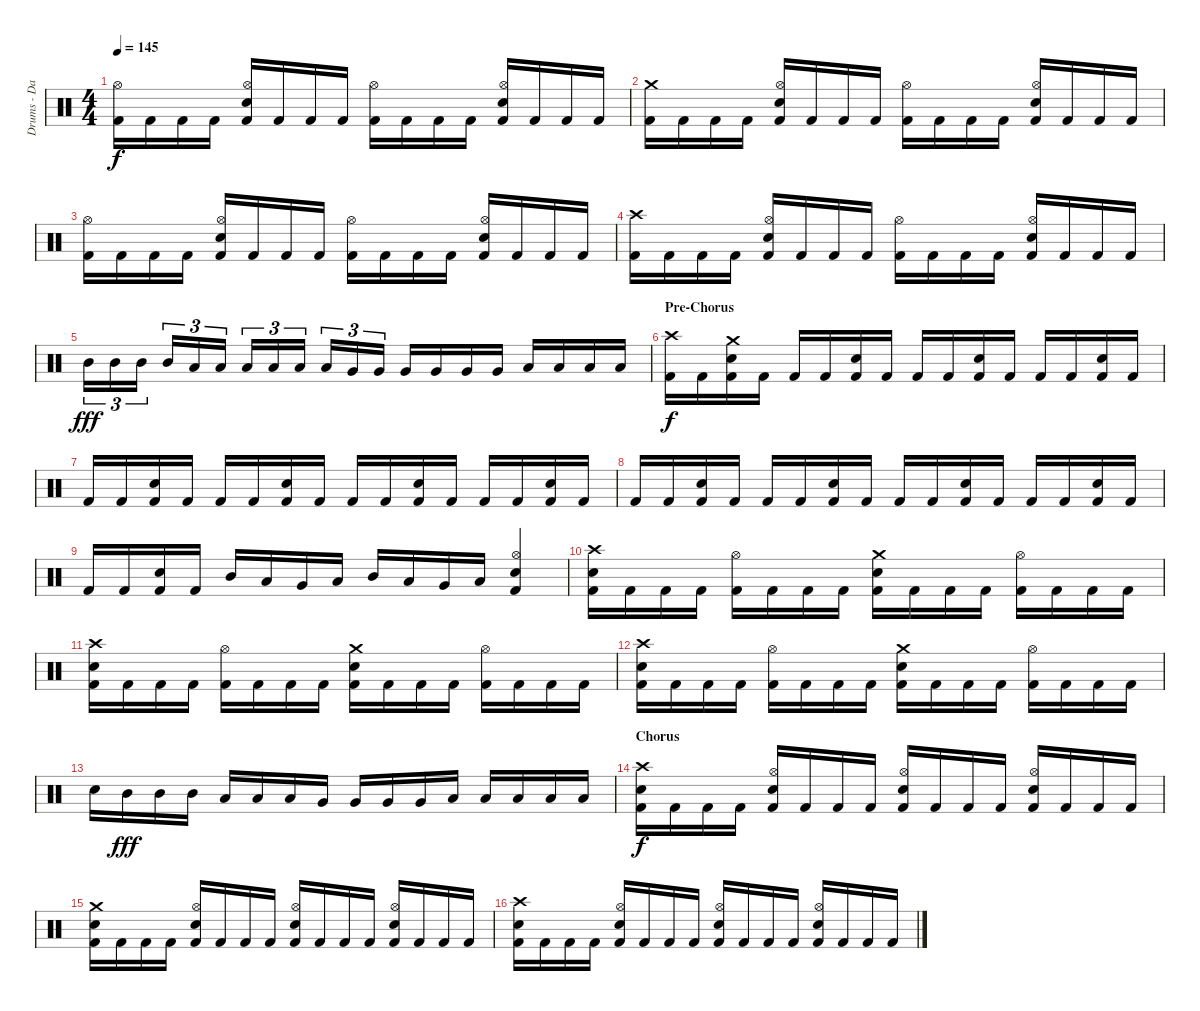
\track ("Drums - Daniel Zimmermann" "Drums - Da") {instrument percussion}
\staff {score}
\articulation defaults
\ts (4 4)
\tempo 145
\clef neutral
\ks c
("Kick (hit) 2" "Hi-Hat (open)").16{dy f} "Kick (hit) 2".16 "Kick (hit) 2".16 "Kick (hit) 2".16 ("Kick (hit) 2" "Electric Snare (hit)" "Hi-Hat (open)").16 "Kick (hit) 2".16 "Kick (hit) 2".16 "Kick (hit) 2".16 ("Kick (hit) 2" "Hi-Hat (open)").16 "Kick (hit) 2".16 "Kick (hit) 2".16 "Kick (hit) 2".16 ("Kick (hit) 2" "Electric Snare (hit)" "Hi-Hat (open)").16 "Kick (hit) 2".16 "Kick (hit) 2".16 "Kick (hit) 2".16 |
("Kick (hit) 2" "Crash medium (hit)").16 "Kick (hit) 2".16 "Kick (hit) 2".16 "Kick (hit) 2".16 ("Kick (hit) 2" "Electric Snare (hit)" "Hi-Hat (open)").16 "Kick (hit) 2".16 "Kick (hit) 2".16 "Kick (hit) 2".16 ("Kick (hit) 2" "Hi-Hat (open)").16 "Kick (hit) 2".16 "Kick (hit) 2".16 "Kick (hit) 2".16 ("Kick (hit) 2" "Electric Snare (hit)" "Hi-Hat (open)").16 "Kick (hit) 2".16 "Kick (hit) 2".16 "Kick (hit) 2".16 |
("Kick (hit) 2" "Hi-Hat (open)").16 "Kick (hit) 2".16 "Kick (hit) 2".16 "Kick (hit) 2".16 ("Kick (hit) 2" "Electric Snare (hit)" "Hi-Hat (open)").16 "Kick (hit) 2".16 "Kick (hit) 2".16 "Kick (hit) 2".16 ("Kick (hit) 2" "Hi-Hat (open)").16 "Kick (hit) 2".16 "Kick (hit) 2".16 "Kick (hit) 2".16 ("Kick (hit) 2" "Electric Snare (hit)" "Hi-Hat (open)").16 "Kick (hit) 2".16 "Kick (hit) 2".16 "Kick (hit) 2".16 |
("Kick (hit) 2" "Crash high (hit)").16 "Kick (hit) 2".16 "Kick (hit) 2".16 "Kick (hit) 2".16 ("Kick (hit) 2" "Electric Snare (hit)" "Hi-Hat (open)").16 "Kick (hit) 2".16 "Kick (hit) 2".16 "Kick (hit) 2".16 ("Kick (hit) 2" "Hi-Hat (open)").16 "Kick (hit) 2".16 "Kick (hit) 2".16 "Kick (hit) 2".16 ("Kick (hit) 2" "Electric Snare (hit)" "Hi-Hat (open)").16 "Kick (hit) 2".16 "Kick (hit) 2".16 "Kick (hit) 2".16 |
"Mid Tom (hit)".16{tu (3 2) dy fff} "Mid Tom (hit)".16{tu (3 2)} "Mid Tom (hit)".16{tu (3 2)} "Mid Tom (hit)".16{tu (3 2)} "Low Tom (hit)".16{tu (3 2)} "Low Tom (hit)".16{tu (3 2)} "Low Tom (hit)".16{tu (3 2)} "Low Tom (hit)".16{tu (3 2)} "Low Tom (hit)".16{tu (3 2)} "Low Tom (hit)".16{tu (3 2)} "Very Low Tom (hit)".16{tu (3 2)} "Very Low Tom (hit)".16{tu (3 2)} "Very Low Tom (hit)".16 "Very Low Tom (hit)".16 "Very Low Tom (hit)".16 "Very Low Tom (hit)".16 "Low Floor Tom (hit)".16 "Low Floor Tom (hit)".16 "Low Floor Tom (hit)".16 "Low Floor Tom (hit)".16 |
\section ("" "Pre-Chorus")
("Kick (hit) 2" "Crash high (hit)").16{dy f} "Kick (hit) 2".16 ("Kick (hit) 2" "Electric Snare (hit)" "Crash medium (hit)").16 "Kick (hit) 2".16 "Kick (hit) 2".16 "Kick (hit) 2".16 ("Kick (hit) 2" "Electric Snare (hit)").16 "Kick (hit) 2".16 "Kick (hit) 2".16 "Kick (hit) 2".16 ("Kick (hit) 2" "Electric Snare (hit)").16 "Kick (hit) 2".16 "Kick (hit) 2".16 "Kick (hit) 2".16 ("Kick (hit) 2" "Electric Snare (hit)").16 "Kick (hit) 2".16 |
"Kick (hit) 2".16 "Kick (hit) 2".16 ("Kick (hit) 2" "Electric Snare (hit)").16 "Kick (hit) 2".16 "Kick (hit) 2".16 "Kick (hit) 2".16 ("Kick (hit) 2" "Electric Snare (hit)").16 "Kick (hit) 2".16 "Kick (hit) 2".16 "Kick (hit) 2".16 ("Kick (hit) 2" "Electric Snare (hit)").16 "Kick (hit) 2".16 "Kick (hit) 2".16 "Kick (hit) 2".16 ("Kick (hit) 2" "Electric Snare (hit)").16 "Kick (hit) 2".16 |
"Kick (hit) 2".16 "Kick (hit) 2".16 ("Kick (hit) 2" "Electric Snare (hit)").16 "Kick (hit) 2".16 "Kick (hit) 2".16 "Kick (hit) 2".16 ("Kick (hit) 2" "Electric Snare (hit)").16 "Kick (hit) 2".16 "Kick (hit) 2".16 "Kick (hit) 2".16 ("Kick (hit) 2" "Electric Snare (hit)").16 "Kick (hit) 2".16 "Kick (hit) 2".16 "Kick (hit) 2".16 ("Kick (hit) 2" "Electric Snare (hit)").16 "Kick (hit) 2".16 |
"Kick (hit) 2".16 "Kick (hit) 2".16 ("Kick (hit) 2" "Electric Snare (hit)").16 "Kick (hit) 2".16 "Mid Tom (hit)".16 "Low Tom (hit)".16 "Very Low Tom (hit)".16 "Low Floor Tom (hit)".16 "Mid Tom (hit)".16 "Low Tom (hit)".16 "Very Low Tom (hit)".16 "Low Floor Tom (hit)".16 ("Kick (hit) 2" "Electric Snare (hit)" "Hi-Hat (open)").4 |
("Kick (hit) 2" "Electric Snare (hit)" "Crash high (hit)").16 "Kick (hit) 2".16 "Kick (hit) 2".16 "Kick (hit) 2".16 ("Kick (hit) 2" "Hi-Hat (open)").16 "Kick (hit) 2".16 "Kick (hit) 2".16 "Kick (hit) 2".16 ("Kick (hit) 2" "Electric Snare (hit)" "Crash medium (hit)").16 "Kick (hit) 2".16 "Kick (hit) 2".16 "Kick (hit) 2".16 ("Kick (hit) 2" "Hi-Hat (open)").16 "Kick (hit) 2".16 "Kick (hit) 2".16 "Kick (hit) 2".16 |
("Kick (hit) 2" "Electric Snare (hit)" "Crash high (hit)").16 "Kick (hit) 2".16 "Kick (hit) 2".16 "Kick (hit) 2".16 ("Kick (hit) 2" "Hi-Hat (open)").16 "Kick (hit) 2".16 "Kick (hit) 2".16 "Kick (hit) 2".16 ("Kick (hit) 2" "Electric Snare (hit)" "Crash medium (hit)").16 "Kick (hit) 2".16 "Kick (hit) 2".16 "Kick (hit) 2".16 ("Kick (hit) 2" "Hi-Hat (open)").16 "Kick (hit) 2".16 "Kick (hit) 2".16 "Kick (hit) 2".16 |
("Kick (hit) 2" "Electric Snare (hit)" "Crash high (hit)").16 "Kick (hit) 2".16 "Kick (hit) 2".16 "Kick (hit) 2".16 ("Kick (hit) 2" "Hi-Hat (open)").16 "Kick (hit) 2".16 "Kick (hit) 2".16 "Kick (hit) 2".16 ("Kick (hit) 2" "Electric Snare (hit)" "Crash medium (hit)").16 "Kick (hit) 2".16 "Kick (hit) 2".16 "Kick (hit) 2".16 ("Kick (hit) 2" "Hi-Hat (open)").16 "Kick (hit) 2".16 "Kick (hit) 2".16 "Kick (hit) 2".16 |
"Electric Snare (hit)".16 "Mid Tom (hit)".16{dy fff} "Mid Tom (hit)".16 "Mid Tom (hit)".16 "Low Tom (hit)".16 "Low Tom (hit)".16 "Low Tom (hit)".16 "Very Low Tom (hit)".16 "Very Low Tom (hit)".16 "Very Low Tom (hit)".16 "Very Low Tom (hit)".16 "Low Floor Tom (hit)".16 "Low Floor Tom (hit)".16 "Low Floor Tom (hit)".16 "Low Floor Tom (hit)".16 "Low Floor Tom (hit)".16 |
\section ("" "Chorus")
("Kick (hit) 2" "Electric Snare (hit)" "Crash high (hit)").16{dy f} "Kick (hit) 2".16 "Kick (hit) 2".16 "Kick (hit) 2".16 ("Kick (hit) 2" "Electric Snare (hit)" "Hi-Hat (open)").16 "Kick (hit) 2".16 "Kick (hit) 2".16 "Kick (hit) 2".16 ("Kick (hit) 2" "Electric Snare (hit)" "Hi-Hat (open)").16 "Kick (hit) 2".16 "Kick (hit) 2".16 "Kick (hit) 2".16 ("Kick (hit) 2" "Electric Snare (hit)" "Hi-Hat (open)").16 "Kick (hit) 2".16 "Kick (hit) 2".16 "Kick (hit) 2".16 |
("Kick (hit) 2" "Electric Snare (hit)" "Crash medium (hit)").16 "Kick (hit) 2".16 "Kick (hit) 2".16 "Kick (hit) 2".16 ("Kick (hit) 2" "Electric Snare (hit)" "Hi-Hat (open)").16 "Kick (hit) 2".16 "Kick (hit) 2".16 "Kick (hit) 2".16 ("Kick (hit) 2" "Electric Snare (hit)" "Hi-Hat (open)").16 "Kick (hit) 2".16 "Kick (hit) 2".16 "Kick (hit) 2".16 ("Kick (hit) 2" "Electric Snare (hit)" "Hi-Hat (open)").16 "Kick (hit) 2".16 "Kick (hit) 2".16 "Kick (hit) 2".16 |
("Kick (hit) 2" "Electric Snare (hit)" "Crash high (hit)").16 "Kick (hit) 2".16 "Kick (hit) 2".16 "Kick (hit) 2".16 ("Kick (hit) 2" "Electric Snare (hit)" "Hi-Hat (open)").16 "Kick (hit) 2".16 "Kick (hit) 2".16 "Kick (hit) 2".16 ("Kick (hit) 2" "Electric Snare (hit)" "Hi-Hat (open)").16 "Kick (hit) 2".16 "Kick (hit) 2".16 "Kick (hit) 2".16 ("Kick (hit) 2" "Electric Snare (hit)" "Hi-Hat (open)").16 "Kick (hit) 2".16 "Kick (hit) 2".16 "Kick (hit) 2".16
